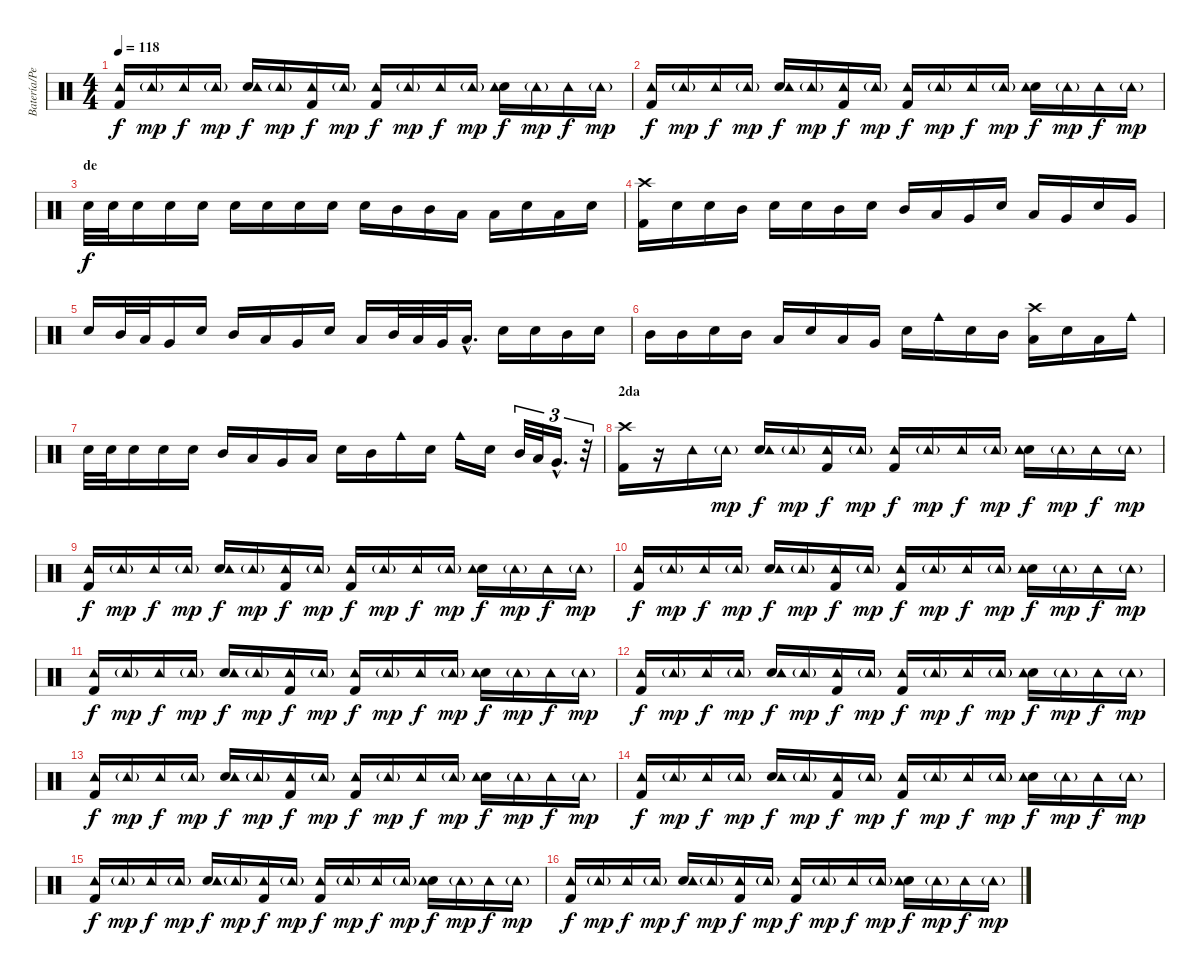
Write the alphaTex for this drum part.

\track ("Batería/Percusión" "Batería/Pe") {instrument percussion}
\staff {score}
\articulation defaults
\ts (4 4)
\tempo 118
\clef neutral
\ks c
("Kick (hit) 2" "Tambourine (hit)").16{dy f} "Tambourine (hit)"{g}.16{dy mp} "Tambourine (hit)".16{dy f} "Tambourine (hit)"{g}.16{dy mp} ("Electric Snare (hit)" "Tambourine (hit)").16{dy f} "Tambourine (hit)"{g}.16{dy mp} ("Kick (hit) 2" "Tambourine (hit)").16{dy f} "Tambourine (hit)"{g}.16{dy mp} ("Kick (hit) 2" "Tambourine (hit)").16{dy f} "Tambourine (hit)"{g}.16{dy mp} "Tambourine (hit)".16{dy f} "Tambourine (hit)"{g}.16{dy mp} ("Electric Snare (hit)" "Tambourine (hit)").16{dy f} "Tambourine (hit)"{g}.16{dy mp} "Tambourine (hit)".16{dy f} "Tambourine (hit)"{g}.16{dy mp} |
("Kick (hit) 2" "Tambourine (hit)").16{dy f} "Tambourine (hit)"{g}.16{dy mp} "Tambourine (hit)".16{dy f} "Tambourine (hit)"{g}.16{dy mp} ("Electric Snare (hit)" "Tambourine (hit)").16{dy f} "Tambourine (hit)"{g}.16{dy mp} ("Kick (hit) 2" "Tambourine (hit)").16{dy f} "Tambourine (hit)"{g}.16{dy mp} ("Kick (hit) 2" "Tambourine (hit)").16{dy f} "Tambourine (hit)"{g}.16{dy mp} "Tambourine (hit)".16{dy f} "Tambourine (hit)"{g}.16{dy mp} ("Electric Snare (hit)" "Tambourine (hit)").16{dy f} "Tambourine (hit)"{g}.16{dy mp} "Tambourine (hit)".16{dy f} "Tambourine (hit)"{g}.16{dy mp} |
\section ("" "de")
"Electric Snare (hit)".32{dy f} "Electric Snare (hit)".32 "Electric Snare (hit)".16 "Electric Snare (hit)".16 "Electric Snare (hit)".16 "Electric Snare (hit)".16 "Electric Snare (hit)".16 "Electric Snare (hit)".16 "Electric Snare (hit)".16 "Electric Snare (hit)".16 "Mid Tom (hit)".16 "Mid Tom (hit)".16 "Low Tom (hit)".16 "Low Tom (hit)".16 "Electric Snare (hit)".16 "Low Tom (hit)".16 "Electric Snare (hit)".16 |
("Crash high (hit)" "Kick (hit) 2").16 "Electric Snare (hit)".16 "Electric Snare (hit)".16 "Mid Tom (hit)".16 "Electric Snare (hit)".16 "Electric Snare (hit)".16 "Mid Tom (hit)".16 "Electric Snare (hit)".16 "Mid Tom (hit)".16 "Low Tom (hit)".16 "Very Low Tom (hit)".16 "Electric Snare (hit)".16 "Low Tom (hit)".16 "Very Low Tom (hit)".16 "Electric Snare (hit)".16 "Very Low Tom (hit)".16 |
"Electric Snare (hit)".16 "Mid Tom (hit)".32 "Low Tom (hit)".32 "Very Low Tom (hit)".16 "Electric Snare (hit)".16 "Mid Tom (hit)".16 "Low Tom (hit)".16 "Very Low Tom (hit)".16 "Electric Snare (hit)".16 "Low Tom (hit)".16 "Mid Tom (hit)".32 "Low Tom (hit)".32 "Very Low Tom (hit)".32 "Low Tom (hit)"{hac}.16{d} "Electric Snare (hit)".16 "Electric Snare (hit)".16 "Mid Tom (hit)".16 "Electric Snare (hit)".16 |
"Mid Tom (hit)".16 "Mid Tom (hit)".16 "Electric Snare (hit)".16 "Mid Tom (hit)".16 "Low Tom (hit)".16 "Electric Snare (hit)".16 "Low Tom (hit)".16 "Very Low Tom (hit)".16 "Electric Snare (hit)".16 "Cowbell medium (hit)".16 "Electric Snare (hit)".16 "Mid Tom (hit)".16 ("Low Tom (hit)" "Crash high (hit)").16 "Electric Snare (hit)".16 "Low Tom (hit)".16 "Cowbell medium (hit)".16 |
"Electric Snare (hit)".32 "Electric Snare (hit)".32 "Electric Snare (hit)".16 "Electric Snare (hit)".16 "Electric Snare (hit)".16 "Mid Tom (hit)".16 "Low Tom (hit)".16 "Very Low Tom (hit)".16 "Low Floor Tom (hit)".16 "Electric Snare (hit)".16 "Mid Tom (hit)".16 "Cowbell medium (hit)".16 "Electric Snare (hit)".16 "Cowbell medium (hit)".16 "Electric Snare (hit)".16 "Mid Tom (hit)".32{tu (3 2)} "Low Tom (hit)".32{tu (3 2)} "Very Low Tom (hit)"{hac}.16{d tu (3 2)} r.32{tu (3 2)} |
\section ("" "2da")
("Kick (hit) 2" "Crash high (hit)").16 r.16 "Tambourine (hit)".16 "Tambourine (hit)"{g}.16{dy mp} ("Electric Snare (hit)" "Tambourine (hit)").16{dy f} "Tambourine (hit)"{g}.16{dy mp} ("Kick (hit) 2" "Tambourine (hit)").16{dy f} "Tambourine (hit)"{g}.16{dy mp} ("Kick (hit) 2" "Tambourine (hit)").16{dy f} "Tambourine (hit)"{g}.16{dy mp} "Tambourine (hit)".16{dy f} "Tambourine (hit)"{g}.16{dy mp} ("Electric Snare (hit)" "Tambourine (hit)").16{dy f} "Tambourine (hit)"{g}.16{dy mp} "Tambourine (hit)".16{dy f} "Tambourine (hit)"{g}.16{dy mp} |
("Kick (hit) 2" "Tambourine (hit)").16{dy f} "Tambourine (hit)"{g}.16{dy mp} "Tambourine (hit)".16{dy f} "Tambourine (hit)"{g}.16{dy mp} ("Electric Snare (hit)" "Tambourine (hit)").16{dy f} "Tambourine (hit)"{g}.16{dy mp} ("Kick (hit) 2" "Tambourine (hit)").16{dy f} "Tambourine (hit)"{g}.16{dy mp} ("Kick (hit) 2" "Tambourine (hit)").16{dy f} "Tambourine (hit)"{g}.16{dy mp} "Tambourine (hit)".16{dy f} "Tambourine (hit)"{g}.16{dy mp} ("Electric Snare (hit)" "Tambourine (hit)").16{dy f} "Tambourine (hit)"{g}.16{dy mp} "Tambourine (hit)".16{dy f} "Tambourine (hit)"{g}.16{dy mp} |
("Kick (hit) 2" "Tambourine (hit)").16{dy f} "Tambourine (hit)"{g}.16{dy mp} "Tambourine (hit)".16{dy f} "Tambourine (hit)"{g}.16{dy mp} ("Electric Snare (hit)" "Tambourine (hit)").16{dy f} "Tambourine (hit)"{g}.16{dy mp} ("Kick (hit) 2" "Tambourine (hit)").16{dy f} "Tambourine (hit)"{g}.16{dy mp} ("Kick (hit) 2" "Tambourine (hit)").16{dy f} "Tambourine (hit)"{g}.16{dy mp} "Tambourine (hit)".16{dy f} "Tambourine (hit)"{g}.16{dy mp} ("Electric Snare (hit)" "Tambourine (hit)").16{dy f} "Tambourine (hit)"{g}.16{dy mp} "Tambourine (hit)".16{dy f} "Tambourine (hit)"{g}.16{dy mp} |
("Kick (hit) 2" "Tambourine (hit)").16{dy f} "Tambourine (hit)"{g}.16{dy mp} "Tambourine (hit)".16{dy f} "Tambourine (hit)"{g}.16{dy mp} ("Electric Snare (hit)" "Tambourine (hit)").16{dy f} "Tambourine (hit)"{g}.16{dy mp} ("Kick (hit) 2" "Tambourine (hit)").16{dy f} "Tambourine (hit)"{g}.16{dy mp} ("Kick (hit) 2" "Tambourine (hit)").16{dy f} "Tambourine (hit)"{g}.16{dy mp} "Tambourine (hit)".16{dy f} "Tambourine (hit)"{g}.16{dy mp} ("Electric Snare (hit)" "Tambourine (hit)").16{dy f} "Tambourine (hit)"{g}.16{dy mp} "Tambourine (hit)".16{dy f} "Tambourine (hit)"{g}.16{dy mp} |
("Kick (hit) 2" "Tambourine (hit)").16{dy f} "Tambourine (hit)"{g}.16{dy mp} "Tambourine (hit)".16{dy f} "Tambourine (hit)"{g}.16{dy mp} ("Electric Snare (hit)" "Tambourine (hit)").16{dy f} "Tambourine (hit)"{g}.16{dy mp} ("Kick (hit) 2" "Tambourine (hit)").16{dy f} "Tambourine (hit)"{g}.16{dy mp} ("Kick (hit) 2" "Tambourine (hit)").16{dy f} "Tambourine (hit)"{g}.16{dy mp} "Tambourine (hit)".16{dy f} "Tambourine (hit)"{g}.16{dy mp} ("Electric Snare (hit)" "Tambourine (hit)").16{dy f} "Tambourine (hit)"{g}.16{dy mp} "Tambourine (hit)".16{dy f} "Tambourine (hit)"{g}.16{dy mp} |
("Kick (hit) 2" "Tambourine (hit)").16{dy f} "Tambourine (hit)"{g}.16{dy mp} "Tambourine (hit)".16{dy f} "Tambourine (hit)"{g}.16{dy mp} ("Electric Snare (hit)" "Tambourine (hit)").16{dy f} "Tambourine (hit)"{g}.16{dy mp} ("Kick (hit) 2" "Tambourine (hit)").16{dy f} "Tambourine (hit)"{g}.16{dy mp} ("Kick (hit) 2" "Tambourine (hit)").16{dy f} "Tambourine (hit)"{g}.16{dy mp} "Tambourine (hit)".16{dy f} "Tambourine (hit)"{g}.16{dy mp} ("Electric Snare (hit)" "Tambourine (hit)").16{dy f} "Tambourine (hit)"{g}.16{dy mp} "Tambourine (hit)".16{dy f} "Tambourine (hit)"{g}.16{dy mp} |
("Kick (hit) 2" "Tambourine (hit)").16{dy f} "Tambourine (hit)"{g}.16{dy mp} "Tambourine (hit)".16{dy f} "Tambourine (hit)"{g}.16{dy mp} ("Electric Snare (hit)" "Tambourine (hit)").16{dy f} "Tambourine (hit)"{g}.16{dy mp} ("Kick (hit) 2" "Tambourine (hit)").16{dy f} "Tambourine (hit)"{g}.16{dy mp} ("Kick (hit) 2" "Tambourine (hit)").16{dy f} "Tambourine (hit)"{g}.16{dy mp} "Tambourine (hit)".16{dy f} "Tambourine (hit)"{g}.16{dy mp} ("Electric Snare (hit)" "Tambourine (hit)").16{dy f} "Tambourine (hit)"{g}.16{dy mp} "Tambourine (hit)".16{dy f} "Tambourine (hit)"{g}.16{dy mp} |
("Kick (hit) 2" "Tambourine (hit)").16{dy f} "Tambourine (hit)"{g}.16{dy mp} "Tambourine (hit)".16{dy f} "Tambourine (hit)"{g}.16{dy mp} ("Electric Snare (hit)" "Tambourine (hit)").16{dy f} "Tambourine (hit)"{g}.16{dy mp} ("Kick (hit) 2" "Tambourine (hit)").16{dy f} "Tambourine (hit)"{g}.16{dy mp} ("Kick (hit) 2" "Tambourine (hit)").16{dy f} "Tambourine (hit)"{g}.16{dy mp} "Tambourine (hit)".16{dy f} "Tambourine (hit)"{g}.16{dy mp} ("Electric Snare (hit)" "Tambourine (hit)").16{dy f} "Tambourine (hit)"{g}.16{dy mp} "Tambourine (hit)".16{dy f} "Tambourine (hit)"{g}.16{dy mp} |
("Kick (hit) 2" "Tambourine (hit)").16{dy f} "Tambourine (hit)"{g}.16{dy mp} "Tambourine (hit)".16{dy f} "Tambourine (hit)"{g}.16{dy mp} ("Electric Snare (hit)" "Tambourine (hit)").16{dy f} "Tambourine (hit)"{g}.16{dy mp} ("Kick (hit) 2" "Tambourine (hit)").16{dy f} "Tambourine (hit)"{g}.16{dy mp} ("Kick (hit) 2" "Tambourine (hit)").16{dy f} "Tambourine (hit)"{g}.16{dy mp} "Tambourine (hit)".16{dy f} "Tambourine (hit)"{g}.16{dy mp} ("Electric Snare (hit)" "Tambourine (hit)").16{dy f} "Tambourine (hit)"{g}.16{dy mp} "Tambourine (hit)".16{dy f} "Tambourine (hit)"{g}.16{dy mp}
